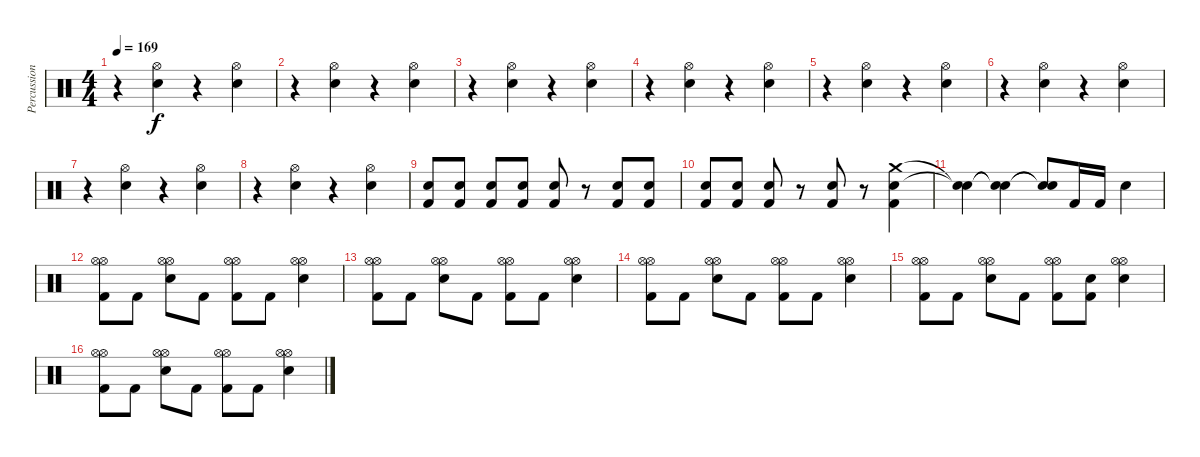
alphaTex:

\track ("Percussion" "Percussion") {instrument percussion}
\staff {score}
\articulation defaults
\ts (4 4)
\tempo 169
\clef neutral
\ks c
r.4{dy f} ("Hi-Hat (open)" "Snare (hit) 2").4 r.4 ("Hi-Hat (open)" "Snare (hit) 2").4 |
r.4 ("Hi-Hat (open)" "Snare (hit) 2").4 r.4 ("Hi-Hat (open)" "Snare (hit) 2").4 |
r.4 ("Hi-Hat (open)" "Snare (hit) 2").4 r.4 ("Hi-Hat (open)" "Snare (hit) 2").4 |
r.4 ("Hi-Hat (open)" "Snare (hit) 2").4 r.4 ("Hi-Hat (open)" "Snare (hit) 2").4 |
r.4 ("Hi-Hat (open)" "Snare (hit) 2").4 r.4 ("Hi-Hat (open)" "Snare (hit) 2").4 |
r.4 ("Hi-Hat (open)" "Snare (hit) 2").4 r.4 ("Hi-Hat (open)" "Snare (hit) 2").4 |
r.4 ("Hi-Hat (open)" "Snare (hit) 2").4 r.4 ("Hi-Hat (open)" "Snare (hit) 2").4 |
r.4 ("Hi-Hat (open)" "Snare (hit) 2").4 r.4 ("Hi-Hat (open)" "Snare (hit) 2").4 |
("Snare (hit) 2" "Kick (hit) 2").8 ("Snare (hit) 2" "Kick (hit) 2").8 ("Snare (hit) 2" "Kick (hit) 2").8 ("Snare (hit) 2" "Kick (hit) 2").8 ("Snare (hit) 2" "Kick (hit) 2").8 r.8 ("Snare (hit) 2" "Kick (hit) 2").8 ("Snare (hit) 2" "Kick (hit) 2").8 |
("Snare (hit) 2" "Kick (hit) 2").8 ("Snare (hit) 2" "Kick (hit) 2").8 ("Snare (hit) 2" "Kick (hit) 2").8 r.8 ("Snare (hit) 2" "Kick (hit) 2").8 r.8 ("Crash medium (hit)" "Snare (hit) 2" "Kick (hit) 2").4 |
("Snare (hit)"{t} "Snare (hit)"{t}).4 ("Snare (hit)"{t} "Snare (hit)"{t}).4 ("Snare (hit)"{t} "Snare (hit)"{t}).8 "Kick (hit) 2".16 "Kick (hit) 2".16 "Snare (hit) 2".4 |
("Hi-Hat (open)" "Hi-Hat (open)" "Kick (hit) 2").8 "Kick (hit) 2".8 ("Hi-Hat (open)" "Hi-Hat (open)" "Snare (hit) 2").8 "Kick (hit) 2".8 ("Hi-Hat (open)" "Hi-Hat (open)" "Kick (hit) 2").8 "Kick (hit) 2".8 ("Hi-Hat (open)" "Hi-Hat (open)" "Snare (hit) 2").4 |
("Hi-Hat (open)" "Hi-Hat (open)" "Kick (hit) 2").8 "Kick (hit) 2".8 ("Hi-Hat (open)" "Hi-Hat (open)" "Snare (hit) 2").8 "Kick (hit) 2".8 ("Hi-Hat (open)" "Hi-Hat (open)" "Kick (hit) 2").8 "Kick (hit) 2".8 ("Hi-Hat (open)" "Hi-Hat (open)" "Snare (hit) 2").4 |
("Hi-Hat (open)" "Hi-Hat (open)" "Kick (hit) 2").8 "Kick (hit) 2".8 ("Hi-Hat (open)" "Hi-Hat (open)" "Snare (hit) 2").8 "Kick (hit) 2".8 ("Hi-Hat (open)" "Hi-Hat (open)" "Kick (hit) 2").8 "Kick (hit) 2".8 ("Hi-Hat (open)" "Hi-Hat (open)" "Snare (hit) 2").4 |
("Hi-Hat (open)" "Hi-Hat (open)" "Kick (hit) 2").8 "Kick (hit) 2".8 ("Hi-Hat (open)" "Hi-Hat (open)" "Snare (hit) 2").8 "Kick (hit) 2".8 ("Hi-Hat (open)" "Hi-Hat (open)" "Kick (hit) 2").8 ("Snare (hit) 2" "Kick (hit) 2").8 ("Hi-Hat (open)" "Hi-Hat (open)" "Snare (hit) 2").4 |
("Hi-Hat (open)" "Hi-Hat (open)" "Kick (hit) 2").8 "Kick (hit) 2".8 ("Hi-Hat (open)" "Hi-Hat (open)" "Snare (hit) 2").8 "Kick (hit) 2".8 ("Hi-Hat (open)" "Hi-Hat (open)" "Kick (hit) 2").8 "Kick (hit) 2".8 ("Hi-Hat (open)" "Hi-Hat (open)" "Snare (hit) 2").4
